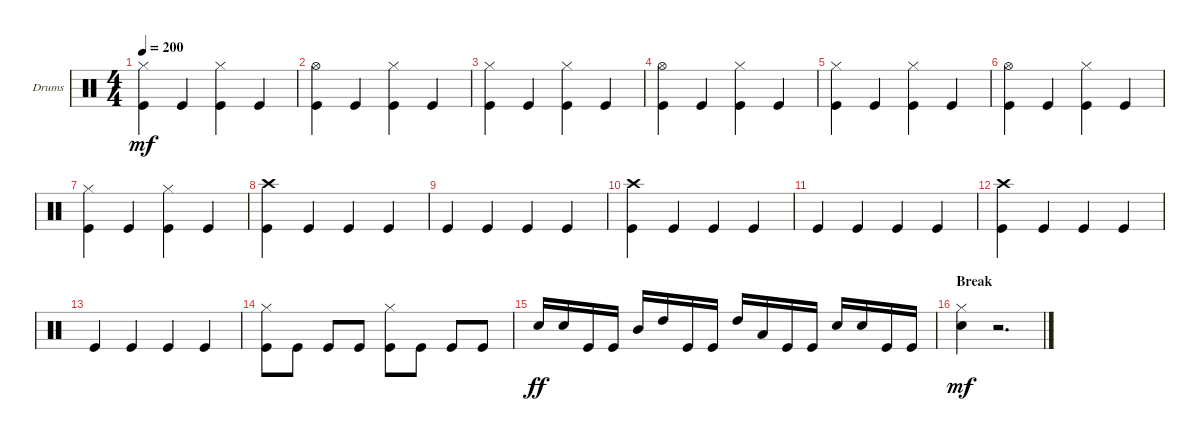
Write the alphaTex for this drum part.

\defaultSystemsLayout 4
\bracketExtendMode groupsimilarinstruments
\firstSystemTrackNameOrientation horizontal
\otherSystemsTrackNameOrientation horizontal
\track ("Drums" "Drums") {instrument percussion}
\staff {score}
\articulation defaults
\ts (4 4)
\tempo 200
\clef neutral
\ks c
("Kick (hit)" "Hi-Hat (closed)").4{dy mf} "Kick (hit)".4 ("Kick (hit)" "Hi-Hat (closed)").4 "Kick (hit)".4 |
("Kick (hit)" "Hi-Hat (open)").4 "Kick (hit)".4 ("Kick (hit)" "Hi-Hat (closed)").4 "Kick (hit)".4 |
("Kick (hit)" "Hi-Hat (closed)").4 "Kick (hit)".4 ("Kick (hit)" "Hi-Hat (closed)").4 "Kick (hit)".4 |
("Kick (hit)" "Hi-Hat (open)").4 "Kick (hit)".4 ("Kick (hit)" "Hi-Hat (closed)").4 "Kick (hit)".4 |
("Kick (hit)" "Hi-Hat (closed)").4 "Kick (hit)".4 ("Kick (hit)" "Hi-Hat (closed)").4 "Kick (hit)".4 |
("Kick (hit)" "Hi-Hat (open)").4 "Kick (hit)".4 ("Kick (hit)" "Hi-Hat (closed)").4 "Kick (hit)".4 |
("Kick (hit)" "Hi-Hat (closed)").4 "Kick (hit)".4 ("Kick (hit)" "Hi-Hat (closed)").4 "Kick (hit)".4 |
("Kick (hit)" "Crash high (hit)").4 "Kick (hit)".4 "Kick (hit)".4 "Kick (hit)".4 |
"Kick (hit)".4 "Kick (hit)".4 "Kick (hit)".4 "Kick (hit)".4 |
("Kick (hit)" "Crash high (hit)").4 "Kick (hit)".4 "Kick (hit)".4 "Kick (hit)".4 |
"Kick (hit)".4 "Kick (hit)".4 "Kick (hit)".4 "Kick (hit)".4 |
("Kick (hit)" "Crash high (hit)").4 "Kick (hit)".4 "Kick (hit)".4 "Kick (hit)".4 |
"Kick (hit)".4 "Kick (hit)".4 "Kick (hit)".4 "Kick (hit)".4 |
("Kick (hit)" "Hi-Hat (closed)").8 "Kick (hit)".8 "Kick (hit)".8 "Kick (hit)".8 ("Kick (hit)" "Hi-Hat (closed)").8 "Kick (hit)".8 "Kick (hit)".8 "Kick (hit)".8 |
"Snare (hit) 2".16{dy ff} "Snare (hit) 2".16 "Kick (hit)".16 "Kick (hit)".16 "Mid Tom (hit)".16 "High Tom (hit)".16 "Kick (hit)".16 "Kick (hit)".16 "High Tom (hit)".16 "Low Tom (hit)".16 "Kick (hit)".16 "Kick (hit)".16 "Snare (hit) 2".16 "Snare (hit) 2".16 "Kick (hit)".16 "Kick (hit)".16 |
\section ("" "Break")
("Hi-Hat (closed)" "Snare (hit) 2").4{dy mf} r.2{d}
